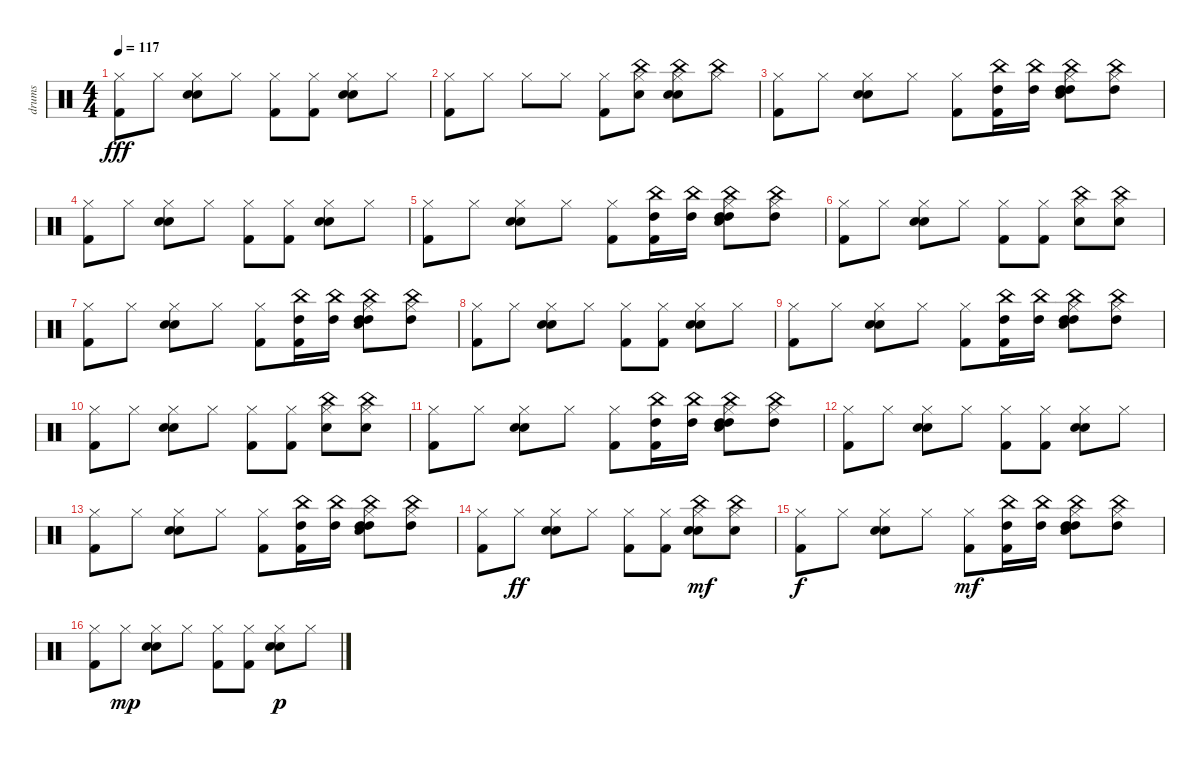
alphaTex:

\track ("drums" "drums") {instrument percussion}
\staff {score}
\articulation defaults
\ts (4 4)
\tempo 117
\clef neutral
\ks c
("Kick (hit) 2" "Hi-Hat (closed)").8{dy fff} "Hi-Hat (closed)".8 ("Hi-Hat (closed)" "Electric Snare (hit)" "Electric Snare (hit)").8 "Hi-Hat (closed)".8 ("Kick (hit) 2" "Hi-Hat (closed)").8 ("Kick (hit) 2" "Hi-Hat (closed)").8 ("Hi-Hat (closed)" "Electric Snare (hit)" "Electric Snare (hit)").8 "Hi-Hat (closed)".8 |
("Kick (hit) 2" "Hi-Hat (closed)").8 "Hi-Hat (closed)".8 "Hi-Hat (closed)".8 "Hi-Hat (closed)".8 ("Kick (hit) 2" "Hi-Hat (closed)").8 ("China (hit)" "Electric Snare (hit)" "Hi-Hat (closed)").8 ("Electric Snare (hit)" "Hi-Hat (closed)" "China (hit)" "Electric Snare (hit)").8 ("China (hit)" "Hi-Hat (closed)").8 |
("Kick (hit) 2" "Hi-Hat (closed)").8 "Hi-Hat (closed)".8 ("Hi-Hat (closed)" "Electric Snare (hit)" "Electric Snare (hit)").8 "Hi-Hat (closed)".8 ("Kick (hit) 2" "Hi-Hat (closed)").8 ("Kick (hit) 2" "China (hit)" "High Tom (hit)").16 ("China (hit)" "High Tom (hit)").16 ("China (hit)" "High Tom (hit)" "Hi-Hat (closed)" "High Tom (hit)" "Electric Snare (hit)").8 ("China (hit)" "High Tom (hit)" "Hi-Hat (closed)").8 |
("Kick (hit) 2" "Hi-Hat (closed)").8 "Hi-Hat (closed)".8 ("Hi-Hat (closed)" "Electric Snare (hit)" "Electric Snare (hit)").8 "Hi-Hat (closed)".8 ("Kick (hit) 2" "Hi-Hat (closed)").8 ("Kick (hit) 2" "Hi-Hat (closed)").8 ("Hi-Hat (closed)" "Electric Snare (hit)" "Electric Snare (hit)").8 "Hi-Hat (closed)".8 |
("Kick (hit) 2" "Hi-Hat (closed)").8 "Hi-Hat (closed)".8 ("Hi-Hat (closed)" "Electric Snare (hit)" "Electric Snare (hit)").8 "Hi-Hat (closed)".8 ("Kick (hit) 2" "Hi-Hat (closed)").8 ("Kick (hit) 2" "China (hit)" "High Tom (hit)").16 ("China (hit)" "High Tom (hit)").16 ("China (hit)" "High Tom (hit)" "Hi-Hat (closed)" "High Tom (hit)" "Electric Snare (hit)").8 ("China (hit)" "High Tom (hit)" "Hi-Hat (closed)").8 |
("Kick (hit) 2" "Hi-Hat (closed)").8 "Hi-Hat (closed)".8 ("Hi-Hat (closed)" "Electric Snare (hit)" "Electric Snare (hit)").8 "Hi-Hat (closed)".8 ("Kick (hit) 2" "Hi-Hat (closed)").8 ("Kick (hit) 2" "Hi-Hat (closed)").8 ("Hi-Hat (closed)" "China (hit)" "Electric Snare (hit)").8 ("China (hit)" "Electric Snare (hit)" "Hi-Hat (closed)").8 |
("Kick (hit) 2" "Hi-Hat (closed)").8 "Hi-Hat (closed)".8 ("Hi-Hat (closed)" "Electric Snare (hit)" "Electric Snare (hit)").8 "Hi-Hat (closed)".8 ("Kick (hit) 2" "Hi-Hat (closed)").8 ("Kick (hit) 2" "China (hit)" "High Tom (hit)").16 ("China (hit)" "High Tom (hit)").16 ("China (hit)" "High Tom (hit)" "Hi-Hat (closed)" "High Tom (hit)" "Electric Snare (hit)").8 ("China (hit)" "High Tom (hit)" "Hi-Hat (closed)").8 |
("Kick (hit) 2" "Hi-Hat (closed)").8 "Hi-Hat (closed)".8 ("Hi-Hat (closed)" "Electric Snare (hit)" "Electric Snare (hit)").8 "Hi-Hat (closed)".8 ("Kick (hit) 2" "Hi-Hat (closed)").8 ("Kick (hit) 2" "Hi-Hat (closed)").8 ("Hi-Hat (closed)" "Electric Snare (hit)" "Electric Snare (hit)").8 "Hi-Hat (closed)".8 |
("Kick (hit) 2" "Hi-Hat (closed)").8 "Hi-Hat (closed)".8 ("Hi-Hat (closed)" "Electric Snare (hit)" "Electric Snare (hit)").8 "Hi-Hat (closed)".8 ("Kick (hit) 2" "Hi-Hat (closed)").8 ("Kick (hit) 2" "China (hit)" "High Tom (hit)").16 ("China (hit)" "High Tom (hit)").16 ("China (hit)" "High Tom (hit)" "Hi-Hat (closed)" "High Tom (hit)" "Electric Snare (hit)").8 ("China (hit)" "High Tom (hit)" "Hi-Hat (closed)").8 |
("Kick (hit) 2" "Hi-Hat (closed)").8 "Hi-Hat (closed)".8 ("Hi-Hat (closed)" "Electric Snare (hit)" "Electric Snare (hit)").8 "Hi-Hat (closed)".8 ("Kick (hit) 2" "Hi-Hat (closed)").8 ("Kick (hit) 2" "Hi-Hat (closed)").8 ("Hi-Hat (closed)" "China (hit)" "Electric Snare (hit)").8 ("China (hit)" "Electric Snare (hit)" "Hi-Hat (closed)").8 |
("Kick (hit) 2" "Hi-Hat (closed)").8 "Hi-Hat (closed)".8 ("Hi-Hat (closed)" "Electric Snare (hit)" "Electric Snare (hit)").8 "Hi-Hat (closed)".8 ("Kick (hit) 2" "Hi-Hat (closed)").8 ("Kick (hit) 2" "China (hit)" "High Tom (hit)").16 ("China (hit)" "High Tom (hit)").16 ("China (hit)" "High Tom (hit)" "Hi-Hat (closed)" "High Tom (hit)" "Electric Snare (hit)").8 ("China (hit)" "High Tom (hit)" "Hi-Hat (closed)").8 |
("Kick (hit) 2" "Hi-Hat (closed)").8 "Hi-Hat (closed)".8 ("Hi-Hat (closed)" "Electric Snare (hit)" "Electric Snare (hit)").8 "Hi-Hat (closed)".8 ("Kick (hit) 2" "Hi-Hat (closed)").8 ("Kick (hit) 2" "Hi-Hat (closed)").8 ("Hi-Hat (closed)" "Electric Snare (hit)" "Electric Snare (hit)").8 "Hi-Hat (closed)".8 |
("Kick (hit) 2" "Hi-Hat (closed)").8 "Hi-Hat (closed)".8 ("Hi-Hat (closed)" "Electric Snare (hit)" "Electric Snare (hit)").8 "Hi-Hat (closed)".8 ("Kick (hit) 2" "Hi-Hat (closed)").8 ("Kick (hit) 2" "China (hit)" "High Tom (hit)").16 ("China (hit)" "High Tom (hit)").16 ("China (hit)" "High Tom (hit)" "Hi-Hat (closed)" "High Tom (hit)" "Electric Snare (hit)").8 ("China (hit)" "High Tom (hit)" "Hi-Hat (closed)").8 |
("Kick (hit) 2" "Hi-Hat (closed)").8 "Hi-Hat (closed)".8{dy ff} ("Hi-Hat (closed)" "Electric Snare (hit)" "Electric Snare (hit)").8 "Hi-Hat (closed)".8 ("Kick (hit) 2" "Hi-Hat (closed)").8 ("Kick (hit) 2" "Hi-Hat (closed)").8 ("Hi-Hat (closed)" "China (hit)" "Electric Snare (hit)" "Electric Snare (hit)").8{dy mf} ("China (hit)" "Electric Snare (hit)" "Hi-Hat (closed)").8 |
("Kick (hit) 2" "Hi-Hat (closed)").8{dy f} "Hi-Hat (closed)".8 ("Hi-Hat (closed)" "Electric Snare (hit)" "Electric Snare (hit)").8 "Hi-Hat (closed)".8 ("Kick (hit) 2" "Hi-Hat (closed)").8{dy mf} ("Kick (hit) 2" "China (hit)" "High Tom (hit)").16 ("China (hit)" "High Tom (hit)").16 ("China (hit)" "High Tom (hit)" "Hi-Hat (closed)" "High Tom (hit)" "Electric Snare (hit)").8 ("China (hit)" "High Tom (hit)" "Hi-Hat (closed)").8 |
("Kick (hit) 2" "Hi-Hat (closed)").8 "Hi-Hat (closed)".8{dy mp} ("Hi-Hat (closed)" "Electric Snare (hit)" "Electric Snare (hit)").8 "Hi-Hat (closed)".8 ("Kick (hit) 2" "Hi-Hat (closed)").8 ("Kick (hit) 2" "Hi-Hat (closed)").8 ("Hi-Hat (closed)" "Electric Snare (hit)" "Electric Snare (hit)").8{dy p} "Hi-Hat (closed)".8
